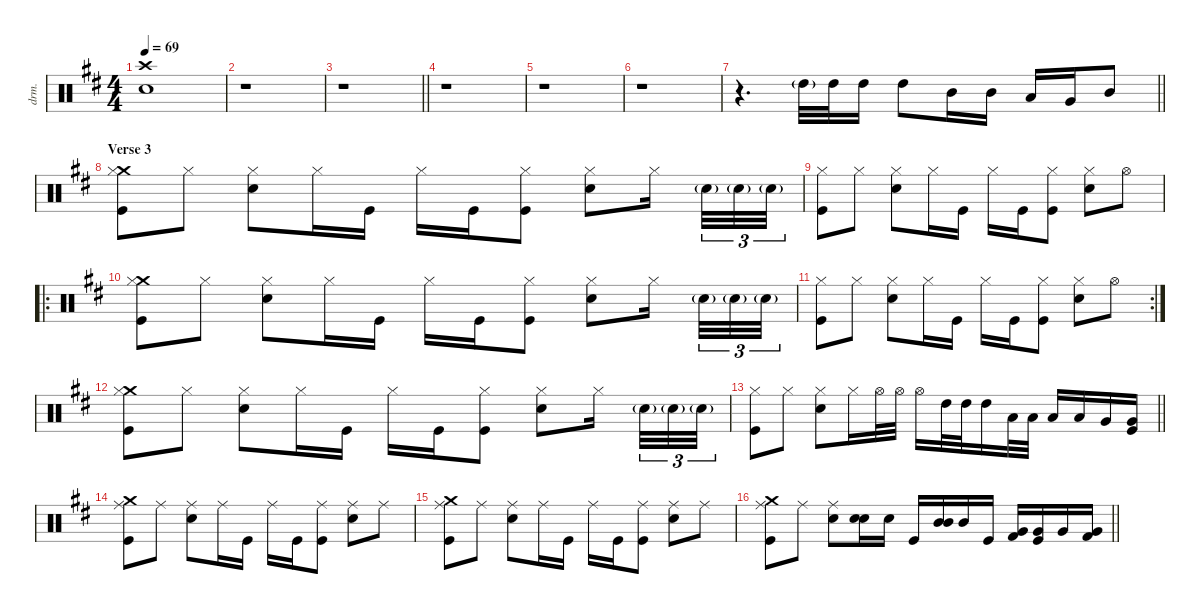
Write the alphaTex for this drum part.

\defaultSystemsLayout 4
\hideDynamics
\bracketExtendMode nobrackets
\otherSystemsTrackNameOrientation horizontal
\track ("Percussion" "drm.") {defaultSystemsLayout 4 instrument percussion}
\staff {score}
\articulation defaults
\ts (4 4)
\tempo 69
\clef neutral
\ks bminor
("Crash high (hit)"{acc forcenatural} "Snare (hit) 2"{acc forcenatural}).1{dy f beam Down} |
r.1{beam Down} |
\barLineRight lightlight
r.1{beam Down} |
r.1{beam Down} |
r.1{beam Down} |
r.1{beam Down} |
\barLineRight lightlight
r.4{d beam Down} "High Tom (hit)"{g acc forcenatural}.32{dy mf beam Down} "High Tom (hit)"{acc forcenatural}.32{dy mp beam Down} "High Tom (hit)"{acc forcenatural}.16{beam Down} "High Tom (hit)"{acc forcenatural}.8{dy f beam Down} "Mid Tom (hit)"{acc forcenatural}.16{beam Down} "Mid Tom (hit)"{acc forcenatural}.16{dy mf beam Down} "Low Tom (hit)"{acc forcenatural}.16{dy f beam Up} "Very Low Tom (hit)"{acc forcenatural}.16{dy ff beam Up} "Mid Tom (hit)"{acc forcenatural}.8{beam Up} |
\section ("" "Verse 3")
("Crash medium (hit)"{acc forcenatural} "Kick (hit)"{acc forcenatural} "Hi-Hat (closed)"{acc forcenatural}).8{dy f beam Down} "Hi-Hat (closed)"{acc forcenatural}.8{beam Down} ("Snare (hit) 2"{acc forcenatural} "Hi-Hat (closed)"{acc forcenatural}).8{beam Down} "Hi-Hat (closed)"{acc forcenatural}.16{beam Down} "Kick (hit)"{acc forcenatural}.16{beam Down} "Hi-Hat (closed)"{acc forcenatural}.16{beam Down} "Kick (hit)"{acc forcenatural}.16{beam Down} ("Kick (hit)"{acc forcenatural} "Hi-Hat (closed)"{acc forcenatural}).8{beam Down} ("Snare (hit) 2"{acc forcenatural} "Hi-Hat (closed)"{acc forcenatural}).8{beam Down} "Hi-Hat (closed)"{acc forcenatural}.16{beam Down} "Snare (hit) 2"{g acc forcenatural}.32{tu (3 2) dy mf beam Down} "Snare (hit) 2"{g acc forcenatural}.32{tu (3 2) dy mp beam Down} "Snare (hit) 2"{g acc forcenatural}.32{tu (3 2) dy mf beam Down} |
("Kick (hit)"{acc forcenatural} "Hi-Hat (closed)"{acc forcenatural}).8{dy f beam Down} "Hi-Hat (closed)"{acc forcenatural}.8{beam Down} ("Snare (hit) 2"{acc forcenatural} "Hi-Hat (closed)"{acc forcenatural}).8{beam Down} "Hi-Hat (closed)"{acc forcenatural}.16{beam Down} "Kick (hit)"{acc forcenatural}.16{beam Down} "Hi-Hat (closed)"{acc forcenatural}.16{beam Down} "Kick (hit)"{acc forcenatural}.16{beam Down} ("Kick (hit)"{acc forcenatural} "Hi-Hat (closed)"{acc forcenatural}).8{beam Down} ("Snare (hit) 2"{acc forcenatural} "Hi-Hat (closed)"{acc forcenatural}).8{beam Down} "Hi-Hat (open)"{acc forcenatural}.8{beam Down} |
\ro
("Crash medium (hit)"{acc forcenatural} "Kick (hit)"{acc forcenatural} "Hi-Hat (closed)"{acc forcenatural}).8{beam Down} "Hi-Hat (closed)"{acc forcenatural}.8{beam Down} ("Snare (hit) 2"{acc forcenatural} "Hi-Hat (closed)"{acc forcenatural}).8{beam Down} "Hi-Hat (closed)"{acc forcenatural}.16{beam Down} "Kick (hit)"{acc forcenatural}.16{beam Down} "Hi-Hat (closed)"{acc forcenatural}.16{beam Down} "Kick (hit)"{acc forcenatural}.16{beam Down} ("Kick (hit)"{acc forcenatural} "Hi-Hat (closed)"{acc forcenatural}).8{beam Down} ("Snare (hit) 2"{acc forcenatural} "Hi-Hat (closed)"{acc forcenatural}).8{beam Down} "Hi-Hat (closed)"{acc forcenatural}.16{beam Down} "Snare (hit) 2"{g acc forcenatural}.32{tu (3 2) dy mf beam Down} "Snare (hit) 2"{g acc forcenatural}.32{tu (3 2) dy mp beam Down} "Snare (hit) 2"{g acc forcenatural}.32{tu (3 2) dy mf beam Down} |
\rc 2
("Kick (hit)"{acc forcenatural} "Hi-Hat (closed)"{acc forcenatural}).8{dy f beam Down} "Hi-Hat (closed)"{acc forcenatural}.8{beam Down} ("Snare (hit) 2"{acc forcenatural} "Hi-Hat (closed)"{acc forcenatural}).8{beam Down} "Hi-Hat (closed)"{acc forcenatural}.16{beam Down} "Kick (hit)"{acc forcenatural}.16{beam Down} "Hi-Hat (closed)"{acc forcenatural}.16{beam Down} "Kick (hit)"{acc forcenatural}.16{beam Down} ("Kick (hit)"{acc forcenatural} "Hi-Hat (closed)"{acc forcenatural}).8{beam Down} ("Snare (hit) 2"{acc forcenatural} "Hi-Hat (closed)"{acc forcenatural}).8{beam Down} "Hi-Hat (open)"{acc forcenatural}.8{beam Down} |
("Crash medium (hit)"{acc forcenatural} "Kick (hit)"{acc forcenatural} "Hi-Hat (closed)"{acc forcenatural}).8{beam Down} "Hi-Hat (closed)"{acc forcenatural}.8{beam Down} ("Snare (hit) 2"{acc forcenatural} "Hi-Hat (closed)"{acc forcenatural}).8{beam Down} "Hi-Hat (closed)"{acc forcenatural}.16{beam Down} "Kick (hit)"{acc forcenatural}.16{beam Down} "Hi-Hat (closed)"{acc forcenatural}.16{beam Down} "Kick (hit)"{acc forcenatural}.16{beam Down} ("Kick (hit)"{acc forcenatural} "Hi-Hat (closed)"{acc forcenatural}).8{beam Down} ("Snare (hit) 2"{acc forcenatural} "Hi-Hat (closed)"{acc forcenatural}).8{beam Down} "Hi-Hat (closed)"{acc forcenatural}.16{beam Down} "Snare (hit) 2"{g acc forcenatural}.32{tu (3 2) dy mf beam Down} "Snare (hit) 2"{g acc forcenatural}.32{tu (3 2) dy mp beam Down} "Snare (hit) 2"{g acc forcenatural}.32{tu (3 2) dy mf beam Down} |
\barLineRight lightlight
("Kick (hit)"{acc forcenatural} "Hi-Hat (closed)"{acc forcenatural}).8{dy f beam Down} "Hi-Hat (closed)"{acc forcenatural}.8{beam Down} ("Snare (hit) 2"{acc forcenatural} "Hi-Hat (closed)"{acc forcenatural}).8{beam Down} "Hi-Hat (closed)"{acc forcenatural}.16{beam Down} "Hi-Hat (open)"{acc forcenatural}.32{dy mp beam Down} "Hi-Hat (open)"{acc forcenatural}.32{dy p beam Down} "Hi-Hat (open)"{acc forcenatural}.16{dy f beam Down} "High Tom (hit)"{acc forcenatural}.32{beam Down} "High Tom (hit)"{acc forcenatural}.32{dy mf beam Down} "High Tom (hit)"{acc forcenatural}.16{dy f beam Down} "Low Tom (hit)"{acc forcenatural}.32{beam Down} "Low Tom (hit)"{acc forcenatural}.32{dy mf beam Down} "Low Tom (hit)"{acc forcenatural}.16{dy f beam Up} "Low Tom (hit)"{acc forcenatural}.16{beam Up} "Very Low Tom (hit)"{acc forcenatural}.16{dy ff beam Up} ("Very Low Tom (hit)"{acc forcenatural} "Kick (hit)"{acc forcenatural}).16{beam Up} |
("Crash medium (hit)"{acc forcenatural} "Kick (hit)"{acc forcenatural} "Ride (middle)"{acc forcenatural}).8{dy f beam Down} "Ride (middle)"{acc forcenatural}.8{beam Down} ("Snare (hit) 2"{acc forcenatural} "Ride (middle)"{acc forcenatural}).8{beam Down} "Ride (middle)"{acc forcenatural}.16{beam Down} "Kick (hit)"{acc forcenatural}.16{beam Down} "Ride (middle)"{acc forcenatural}.16{beam Down} "Kick (hit)"{acc forcenatural}.16{beam Down} ("Kick (hit)"{acc forcenatural} "Ride (middle)"{acc forcenatural}).8{beam Down} ("Snare (hit) 2"{acc forcenatural} "Ride (middle)"{acc forcenatural}).8{beam Down} "Ride (middle)"{acc forcenatural}.8{beam Down} |
("Crash medium (hit)"{acc forcenatural} "Kick (hit)"{acc forcenatural} "Ride (middle)"{acc forcenatural}).8{beam Down} "Ride (middle)"{acc forcenatural}.8{beam Down} ("Snare (hit) 2"{acc forcenatural} "Ride (middle)"{acc forcenatural}).8{beam Down} "Ride (middle)"{acc forcenatural}.16{beam Down} "Kick (hit)"{acc forcenatural}.16{beam Down} "Ride (middle)"{acc forcenatural}.16{beam Down} "Kick (hit)"{acc forcenatural}.16{beam Down} ("Kick (hit)"{acc forcenatural} "Ride (middle)"{acc forcenatural}).8{beam Down} ("Snare (hit) 2"{acc forcenatural} "Ride (middle)"{acc forcenatural}).8{beam Down} "Ride (middle)"{acc forcenatural}.8{beam Down} |
\barLineRight lightlight
("Crash medium (hit)"{acc forcenatural} "Kick (hit)"{acc forcenatural} "Ride (middle)"{acc forcenatural}).8{beam Down} "Ride (middle)"{acc forcenatural}.8{beam Down} ("Snare (hit) 2"{acc forcenatural} "Ride (middle)"{acc forcenatural}).8{beam Down} ("Snare (hit) 2"{acc forcenatural} "Snare (hit) 2"{acc forcenatural}).16{beam Down} "Snare (hit) 2"{acc forcenatural}.16{beam Down} "Kick (hit)"{acc forcenatural}.16{beam Up} ("Mid Tom (hit)"{acc forcenatural} "Mid Tom (hit)"{acc forcenatural}).16{beam Up} "Mid Tom (hit)"{acc forcenatural}.16{beam Up} "Kick (hit)"{acc forcenatural}.16{beam Up} ("Kick (hit) 2"{acc forcenatural} "Very Low Tom (hit)"{acc forcenatural}).16{dy fff beam Up} ("Very Low Tom (hit)"{acc forcenatural} "Kick (hit)"{acc forcenatural}).16{beam Up} "Very Low Tom (hit)"{acc forcenatural}.16{beam Up} ("Very Low Tom (hit)"{acc forcenatural} "Kick (hit) 2"{acc forcenatural}).16{beam Up}
